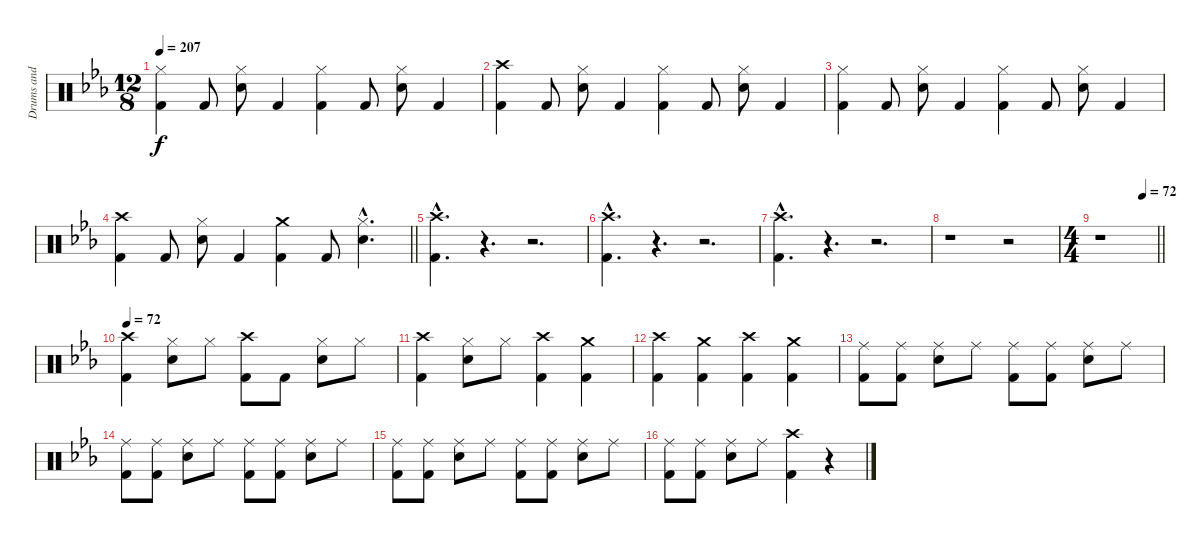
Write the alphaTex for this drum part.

\track ("Drums and percussion" "Drums and ") {instrument percussion}
\staff {score}
\articulation defaults
\ts (12 8)
\tempo 207
\clef neutral
\ks eb
("Hi-Hat (closed)" "Kick (hit) 2").4{dy f} "Kick (hit) 2".8 ("Hi-Hat (closed)" "Snare (hit) 2").8 "Kick (hit) 2".4 ("Hi-Hat (closed)" "Kick (hit) 2").4 "Kick (hit) 2".8 ("Hi-Hat (closed)" "Snare (hit) 2").8 "Kick (hit) 2".4 |
("Crash high (hit)" "Kick (hit) 2").4 "Kick (hit) 2".8 ("Hi-Hat (closed)" "Snare (hit) 2").8 "Kick (hit) 2".4 ("Hi-Hat (closed)" "Kick (hit) 2").4 "Kick (hit) 2".8 ("Hi-Hat (closed)" "Snare (hit) 2").8 "Kick (hit) 2".4 |
("Hi-Hat (closed)" "Kick (hit) 2").4 "Kick (hit) 2".8 ("Hi-Hat (closed)" "Snare (hit) 2").8 "Kick (hit) 2".4 ("Hi-Hat (closed)" "Kick (hit) 2").4 "Kick (hit) 2".8 ("Hi-Hat (closed)" "Snare (hit) 2").8 "Kick (hit) 2".4 |
\barLineRight lightlight
("Crash high (hit)" "Kick (hit) 2").4 "Kick (hit) 2".8 ("Hi-Hat (closed)" "Snare (hit) 2").8 "Kick (hit) 2".4 ("Crash medium (hit)" "Kick (hit) 2").4 "Kick (hit) 2".8 ("Hi-Hat (closed)"{hac} "Snare (hit) 2"{hac}).4{d} |
("Crash high (hit)"{hac} "Kick (hit) 2"{hac}).4{d} r.4{d} r.2{d} |
("Crash high (hit)"{hac} "Kick (hit) 2"{hac}).4{d} r.4{d} r.2{d} |
("Crash high (hit)"{hac} "Kick (hit) 2"{hac}).4{d} r.4{d} r.2{d} |
r.1 r.2 |
\ts (4 4)
\tempo (72 0.75)
\barLineRight lightlight
r.1 |
\tempo 72
("Crash high (hit)" "Kick (hit) 2").4 ("Hi-Hat (closed)" "Snare (hit) 2").8 "Hi-Hat (closed)".8 ("Crash high (hit)" "Kick (hit) 2").8 "Kick (hit) 2".8 ("Hi-Hat (closed)" "Snare (hit) 2").8 "Hi-Hat (closed)".8 |
("Crash high (hit)" "Kick (hit) 2").4 ("Hi-Hat (closed)" "Snare (hit) 2").8 "Hi-Hat (closed)".8 ("Crash high (hit)" "Kick (hit) 2").4 ("Crash medium (hit)" "Kick (hit) 2").4 |
("Crash high (hit)" "Kick (hit) 2").4 ("Crash medium (hit)" "Kick (hit) 2").4 ("Crash high (hit)" "Kick (hit) 2").4 ("Crash medium (hit)" "Kick (hit) 2").4 |
("Ride (middle)" "Kick (hit) 2").8 ("Ride (middle)" "Kick (hit) 2").8 ("Ride (middle)" "Snare (hit) 2").8 "Ride (middle)".8 ("Ride (middle)" "Kick (hit) 2").8 ("Ride (middle)" "Kick (hit) 2").8 ("Ride (middle)" "Snare (hit) 2").8 "Ride (middle)".8 |
("Ride (middle)" "Kick (hit) 2").8 ("Ride (middle)" "Kick (hit) 2").8 ("Ride (middle)" "Snare (hit) 2").8 "Ride (middle)".8 ("Ride (middle)" "Kick (hit) 2").8 ("Ride (middle)" "Kick (hit) 2").8 ("Ride (middle)" "Snare (hit) 2").8 "Ride (middle)".8 |
("Ride (middle)" "Kick (hit) 2").8 ("Ride (middle)" "Kick (hit) 2").8 ("Ride (middle)" "Snare (hit) 2").8 "Ride (middle)".8 ("Ride (middle)" "Kick (hit) 2").8 ("Ride (middle)" "Kick (hit) 2").8 ("Ride (middle)" "Snare (hit) 2").8 "Ride (middle)".8 |
("Ride (middle)" "Kick (hit) 2").8 ("Ride (middle)" "Kick (hit) 2").8 ("Ride (middle)" "Snare (hit) 2").8 "Ride (middle)".8 ("Crash high (hit)" "Kick (hit) 2").4 r.4
